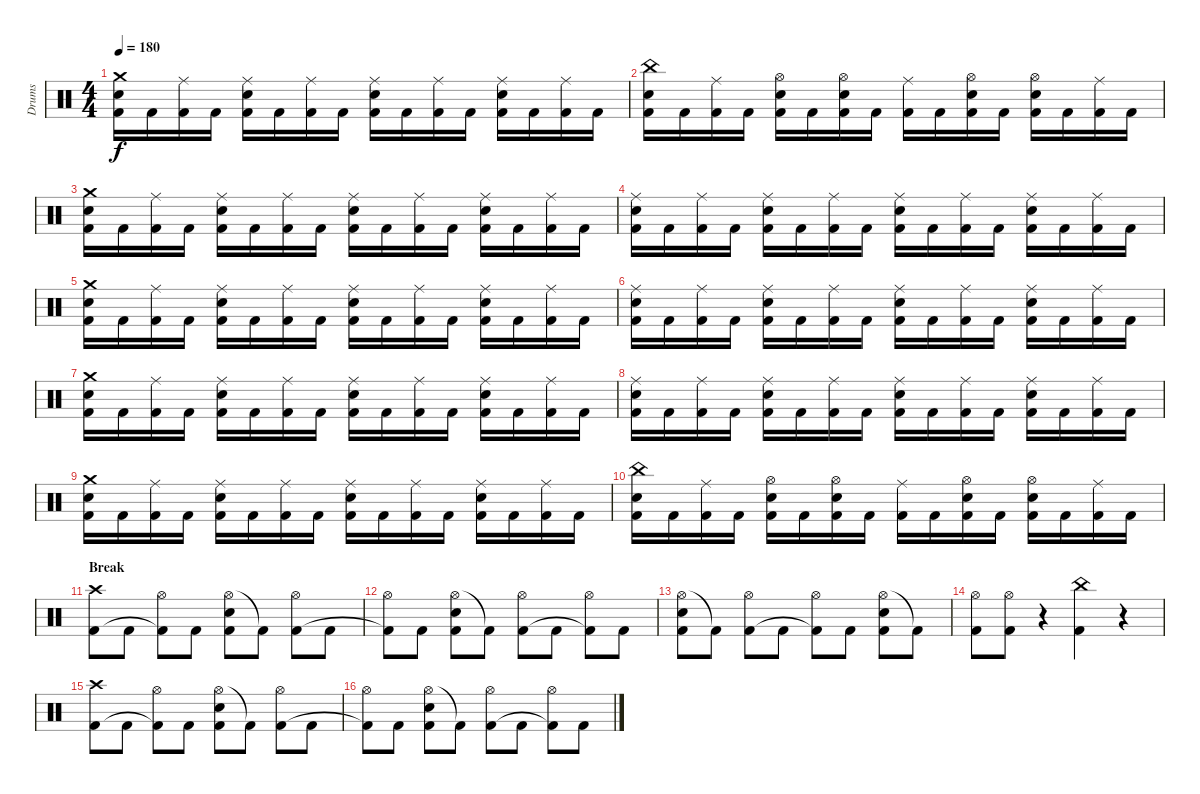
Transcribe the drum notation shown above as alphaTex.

\track ("Drums" "Drums") {instrument percussion}
\staff {score}
\articulation defaults
\ts (4 4)
\tempo 180
\clef neutral
\ks c
("Crash medium (hit)" "Snare (hit) 2" "Kick (hit) 2").16{dy f} "Kick (hit) 2".16 ("Ride (middle)" "Kick (hit) 2").16 "Kick (hit) 2".16 ("Ride (middle)" "Snare (hit) 2" "Kick (hit) 2").16 "Kick (hit) 2".16 ("Ride (middle)" "Kick (hit) 2").16 "Kick (hit) 2".16 ("Ride (middle)" "Snare (hit) 2" "Kick (hit) 2").16 "Kick (hit) 2".16 ("Ride (middle)" "Kick (hit) 2").16 "Kick (hit) 2".16 ("Ride (middle)" "Snare (hit) 2" "Kick (hit) 2").16 "Kick (hit) 2".16 ("Ride (middle)" "Kick (hit) 2").16 "Kick (hit) 2".16 |
("China (hit)" "Snare (hit) 2" "Kick (hit) 2").16 "Kick (hit) 2".16 ("Ride (middle)" "Kick (hit) 2").16 "Kick (hit) 2".16 ("Hi-Hat (open)" "Snare (hit) 2" "Kick (hit) 2").16 "Kick (hit) 2".16 ("Hi-Hat (open)" "Snare (hit) 2" "Kick (hit) 2").16 "Kick (hit) 2".16 ("Ride (middle)" "Kick (hit) 2").16 "Kick (hit) 2".16 ("Hi-Hat (open)" "Snare (hit) 2" "Kick (hit) 2").16 "Kick (hit) 2".16 ("Hi-Hat (open)" "Snare (hit) 2" "Kick (hit) 2").16 "Kick (hit) 2".16 ("Ride (middle)" "Kick (hit) 2").16 "Kick (hit) 2".16 |
("Crash medium (hit)" "Snare (hit) 2" "Kick (hit) 2").16 "Kick (hit) 2".16 ("Ride (middle)" "Kick (hit) 2").16 "Kick (hit) 2".16 ("Ride (middle)" "Snare (hit) 2" "Kick (hit) 2").16 "Kick (hit) 2".16 ("Ride (middle)" "Kick (hit) 2").16 "Kick (hit) 2".16 ("Ride (middle)" "Snare (hit) 2" "Kick (hit) 2").16 "Kick (hit) 2".16 ("Ride (middle)" "Kick (hit) 2").16 "Kick (hit) 2".16 ("Ride (middle)" "Snare (hit) 2" "Kick (hit) 2").16 "Kick (hit) 2".16 ("Ride (middle)" "Kick (hit) 2").16 "Kick (hit) 2".16 |
("Ride (middle)" "Snare (hit) 2" "Kick (hit) 2").16 "Kick (hit) 2".16 ("Ride (middle)" "Kick (hit) 2").16 "Kick (hit) 2".16 ("Ride (middle)" "Snare (hit) 2" "Kick (hit) 2").16 "Kick (hit) 2".16 ("Ride (middle)" "Kick (hit) 2").16 "Kick (hit) 2".16 ("Ride (middle)" "Snare (hit) 2" "Kick (hit) 2").16 "Kick (hit) 2".16 ("Ride (middle)" "Kick (hit) 2").16 "Kick (hit) 2".16 ("Ride (middle)" "Snare (hit) 2" "Kick (hit) 2").16 "Kick (hit) 2".16 ("Ride (middle)" "Kick (hit) 2").16 "Kick (hit) 2".16 |
("Crash medium (hit)" "Snare (hit) 2" "Kick (hit) 2").16 "Kick (hit) 2".16 ("Ride (middle)" "Kick (hit) 2").16 "Kick (hit) 2".16 ("Ride (middle)" "Snare (hit) 2" "Kick (hit) 2").16 "Kick (hit) 2".16 ("Ride (middle)" "Kick (hit) 2").16 "Kick (hit) 2".16 ("Ride (middle)" "Snare (hit) 2" "Kick (hit) 2").16 "Kick (hit) 2".16 ("Ride (middle)" "Kick (hit) 2").16 "Kick (hit) 2".16 ("Ride (middle)" "Snare (hit) 2" "Kick (hit) 2").16 "Kick (hit) 2".16 ("Ride (middle)" "Kick (hit) 2").16 "Kick (hit) 2".16 |
("Ride (middle)" "Snare (hit) 2" "Kick (hit) 2").16 "Kick (hit) 2".16 ("Ride (middle)" "Kick (hit) 2").16 "Kick (hit) 2".16 ("Ride (middle)" "Snare (hit) 2" "Kick (hit) 2").16 "Kick (hit) 2".16 ("Ride (middle)" "Kick (hit) 2").16 "Kick (hit) 2".16 ("Ride (middle)" "Snare (hit) 2" "Kick (hit) 2").16 "Kick (hit) 2".16 ("Ride (middle)" "Kick (hit) 2").16 "Kick (hit) 2".16 ("Ride (middle)" "Snare (hit) 2" "Kick (hit) 2").16 "Kick (hit) 2".16 ("Ride (middle)" "Kick (hit) 2").16 "Kick (hit) 2".16 |
("Crash medium (hit)" "Snare (hit) 2" "Kick (hit) 2").16 "Kick (hit) 2".16 ("Ride (middle)" "Kick (hit) 2").16 "Kick (hit) 2".16 ("Ride (middle)" "Snare (hit) 2" "Kick (hit) 2").16 "Kick (hit) 2".16 ("Ride (middle)" "Kick (hit) 2").16 "Kick (hit) 2".16 ("Ride (middle)" "Snare (hit) 2" "Kick (hit) 2").16 "Kick (hit) 2".16 ("Ride (middle)" "Kick (hit) 2").16 "Kick (hit) 2".16 ("Ride (middle)" "Snare (hit) 2" "Kick (hit) 2").16 "Kick (hit) 2".16 ("Ride (middle)" "Kick (hit) 2").16 "Kick (hit) 2".16 |
("Ride (middle)" "Snare (hit) 2" "Kick (hit) 2").16 "Kick (hit) 2".16 ("Ride (middle)" "Kick (hit) 2").16 "Kick (hit) 2".16 ("Ride (middle)" "Snare (hit) 2" "Kick (hit) 2").16 "Kick (hit) 2".16 ("Ride (middle)" "Kick (hit) 2").16 "Kick (hit) 2".16 ("Ride (middle)" "Snare (hit) 2" "Kick (hit) 2").16 "Kick (hit) 2".16 ("Ride (middle)" "Kick (hit) 2").16 "Kick (hit) 2".16 ("Ride (middle)" "Snare (hit) 2" "Kick (hit) 2").16 "Kick (hit) 2".16 ("Ride (middle)" "Kick (hit) 2").16 "Kick (hit) 2".16 |
("Crash medium (hit)" "Snare (hit) 2" "Kick (hit) 2").16 "Kick (hit) 2".16 ("Ride (middle)" "Kick (hit) 2").16 "Kick (hit) 2".16 ("Ride (middle)" "Snare (hit) 2" "Kick (hit) 2").16 "Kick (hit) 2".16 ("Ride (middle)" "Kick (hit) 2").16 "Kick (hit) 2".16 ("Ride (middle)" "Snare (hit) 2" "Kick (hit) 2").16 "Kick (hit) 2".16 ("Ride (middle)" "Kick (hit) 2").16 "Kick (hit) 2".16 ("Ride (middle)" "Snare (hit) 2" "Kick (hit) 2").16 "Kick (hit) 2".16 ("Ride (middle)" "Kick (hit) 2").16 "Kick (hit) 2".16 |
("China (hit)" "Snare (hit) 2" "Kick (hit) 2").16 "Kick (hit) 2".16 ("Ride (middle)" "Kick (hit) 2").16 "Kick (hit) 2".16 ("Hi-Hat (open)" "Snare (hit) 2" "Kick (hit) 2").16 "Kick (hit) 2".16 ("Hi-Hat (open)" "Snare (hit) 2" "Kick (hit) 2").16 "Kick (hit) 2".16 ("Ride (middle)" "Kick (hit) 2").16 "Kick (hit) 2".16 ("Hi-Hat (open)" "Snare (hit) 2" "Kick (hit) 2").16 "Kick (hit) 2".16 ("Hi-Hat (open)" "Snare (hit) 2" "Kick (hit) 2").16 "Kick (hit) 2".16 ("Ride (middle)" "Kick (hit) 2").16 "Kick (hit) 2".16 |
\section ("" "Break")
("Crash high (hit)" "Kick (hit) 2").8 "Kick (hit) 2".8 ("Hi-Hat (open)" "Kick (hit) 2"{t}).8 "Kick (hit) 2".8 ("Hi-Hat (open)" "Snare (hit) 2" "Kick (hit) 2").8 "Kick (hit) 2"{t}.8 ("Hi-Hat (open)" "Kick (hit) 2").8 "Kick (hit) 2".8 |
("Hi-Hat (open)" "Kick (hit) 2"{t}).8 "Kick (hit) 2".8 ("Hi-Hat (open)" "Snare (hit) 2" "Kick (hit) 2").8 "Kick (hit) 2"{t}.8 ("Hi-Hat (open)" "Kick (hit) 2").8 "Kick (hit) 2".8 ("Hi-Hat (open)" "Kick (hit) 2"{t}).8 "Kick (hit) 2".8 |
("Hi-Hat (open)" "Snare (hit) 2" "Kick (hit) 2").8 "Kick (hit) 2"{t}.8 ("Hi-Hat (open)" "Kick (hit) 2").8 "Kick (hit) 2".8 ("Hi-Hat (open)" "Kick (hit) 2"{t}).8 "Kick (hit) 2".8 ("Hi-Hat (open)" "Snare (hit) 2" "Kick (hit) 2").8 "Kick (hit) 2"{t}.8 |
("Hi-Hat (open)" "Kick (hit) 2").8 ("Hi-Hat (open)" "Kick (hit) 2").8 r.4 ("China (hit)" "Kick (hit) 2").4 r.4 |
("Crash high (hit)" "Kick (hit) 2").8 "Kick (hit) 2".8 ("Hi-Hat (open)" "Kick (hit) 2"{t}).8 "Kick (hit) 2".8 ("Hi-Hat (open)" "Snare (hit) 2" "Kick (hit) 2").8 "Kick (hit) 2"{t}.8 ("Hi-Hat (open)" "Kick (hit) 2").8 "Kick (hit) 2".8 |
("Hi-Hat (open)" "Kick (hit) 2"{t}).8 "Kick (hit) 2".8 ("Hi-Hat (open)" "Snare (hit) 2" "Kick (hit) 2").8 "Kick (hit) 2"{t}.8 ("Hi-Hat (open)" "Kick (hit) 2").8 "Kick (hit) 2".8 ("Hi-Hat (open)" "Kick (hit) 2"{t}).8 "Kick (hit) 2".8
